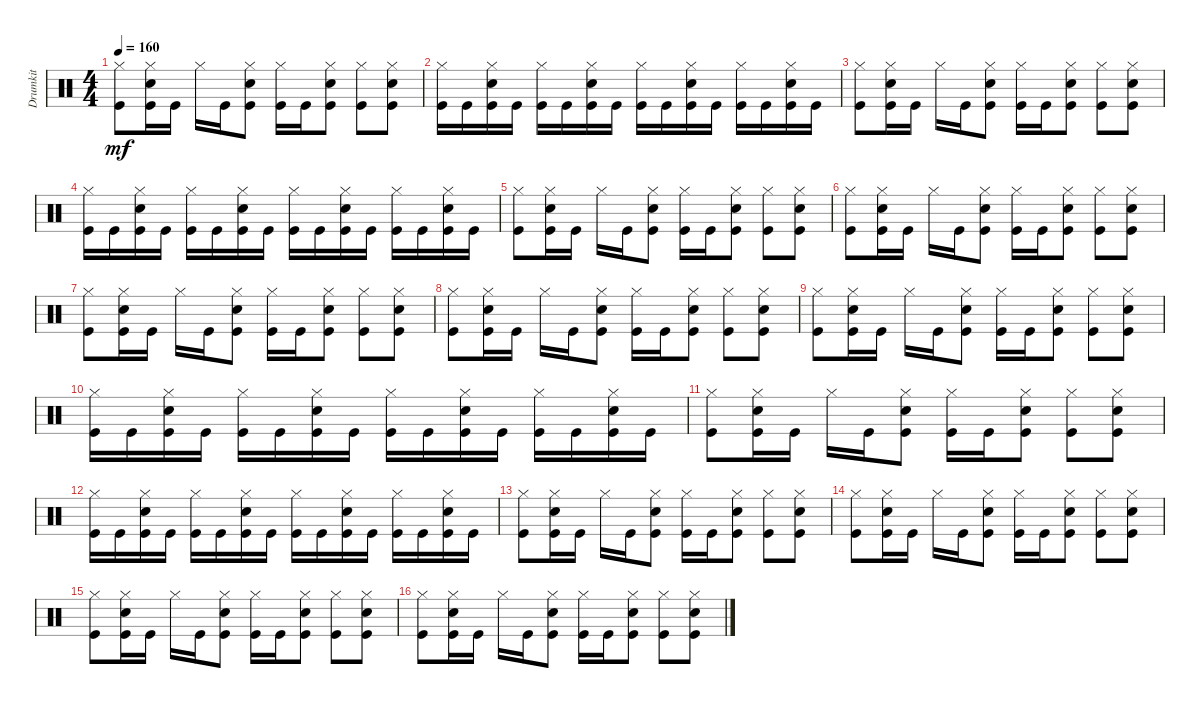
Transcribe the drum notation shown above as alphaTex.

\track ("Drumkit" "Drumkit") {instrument percussion}
\staff {score}
\articulation defaults
\ts (4 4)
\tempo 160
\clef neutral
\ks c
("Kick (hit)" "Hi-Hat (closed)").8{dy mf} ("Kick (hit)" "Snare (hit) 2" "Hi-Hat (closed)").16 "Kick (hit)".16 "Hi-Hat (closed)".16 "Kick (hit)".16 ("Kick (hit)" "Snare (hit) 2" "Hi-Hat (closed)").8 ("Kick (hit)" "Hi-Hat (closed)").16 "Kick (hit)".16 ("Kick (hit)" "Snare (hit) 2" "Hi-Hat (closed)").8 ("Kick (hit)" "Hi-Hat (closed)").8 ("Kick (hit)" "Snare (hit) 2" "Hi-Hat (closed)").8 |
("Kick (hit)" "Hi-Hat (closed)").16 "Kick (hit)".16 ("Kick (hit)" "Snare (hit) 2" "Hi-Hat (closed)").16 "Kick (hit)".16 ("Kick (hit)" "Hi-Hat (closed)").16 "Kick (hit)".16 ("Kick (hit)" "Snare (hit) 2" "Hi-Hat (closed)").16 "Kick (hit)".16 ("Kick (hit)" "Hi-Hat (closed)").16 "Kick (hit)".16 ("Kick (hit)" "Snare (hit) 2" "Hi-Hat (closed)").16 "Kick (hit)".16 ("Kick (hit)" "Hi-Hat (closed)").16 "Kick (hit)".16 ("Kick (hit)" "Snare (hit) 2" "Hi-Hat (closed)").16 "Kick (hit)".16 |
("Kick (hit)" "Hi-Hat (closed)").8 ("Kick (hit)" "Snare (hit) 2" "Hi-Hat (closed)").16 "Kick (hit)".16 "Hi-Hat (closed)".16 "Kick (hit)".16 ("Kick (hit)" "Snare (hit) 2" "Hi-Hat (closed)").8 ("Kick (hit)" "Hi-Hat (closed)").16 "Kick (hit)".16 ("Kick (hit)" "Snare (hit) 2" "Hi-Hat (closed)").8 ("Kick (hit)" "Hi-Hat (closed)").8 ("Kick (hit)" "Snare (hit) 2" "Hi-Hat (closed)").8 |
("Kick (hit)" "Hi-Hat (closed)").16 "Kick (hit)".16 ("Kick (hit)" "Snare (hit) 2" "Hi-Hat (closed)").16 "Kick (hit)".16 ("Kick (hit)" "Hi-Hat (closed)").16 "Kick (hit)".16 ("Kick (hit)" "Snare (hit) 2" "Hi-Hat (closed)").16 "Kick (hit)".16 ("Kick (hit)" "Hi-Hat (closed)").16 "Kick (hit)".16 ("Kick (hit)" "Snare (hit) 2" "Hi-Hat (closed)").16 "Kick (hit)".16 ("Kick (hit)" "Hi-Hat (closed)").16 "Kick (hit)".16 ("Kick (hit)" "Snare (hit) 2" "Hi-Hat (closed)").16 "Kick (hit)".16 |
("Kick (hit)" "Hi-Hat (closed)").8 ("Kick (hit)" "Snare (hit) 2" "Hi-Hat (closed)").16 "Kick (hit)".16 "Hi-Hat (closed)".16 "Kick (hit)".16 ("Kick (hit)" "Snare (hit) 2" "Hi-Hat (closed)").8 ("Kick (hit)" "Hi-Hat (closed)").16 "Kick (hit)".16 ("Kick (hit)" "Snare (hit) 2" "Hi-Hat (closed)").8 ("Kick (hit)" "Hi-Hat (closed)").8 ("Kick (hit)" "Snare (hit) 2" "Hi-Hat (closed)").8 |
("Kick (hit)" "Hi-Hat (closed)").8 ("Kick (hit)" "Snare (hit) 2" "Hi-Hat (closed)").16 "Kick (hit)".16 "Hi-Hat (closed)".16 "Kick (hit)".16 ("Kick (hit)" "Snare (hit) 2" "Hi-Hat (closed)").8 ("Kick (hit)" "Hi-Hat (closed)").16 "Kick (hit)".16 ("Kick (hit)" "Snare (hit) 2" "Hi-Hat (closed)").8 ("Kick (hit)" "Hi-Hat (closed)").8 ("Kick (hit)" "Snare (hit) 2" "Hi-Hat (closed)").8 |
("Kick (hit)" "Hi-Hat (closed)").8 ("Kick (hit)" "Snare (hit) 2" "Hi-Hat (closed)").16 "Kick (hit)".16 "Hi-Hat (closed)".16 "Kick (hit)".16 ("Kick (hit)" "Snare (hit) 2" "Hi-Hat (closed)").8 ("Kick (hit)" "Hi-Hat (closed)").16 "Kick (hit)".16 ("Kick (hit)" "Snare (hit) 2" "Hi-Hat (closed)").8 ("Kick (hit)" "Hi-Hat (closed)").8 ("Kick (hit)" "Snare (hit) 2" "Hi-Hat (closed)").8 |
("Kick (hit)" "Hi-Hat (closed)").8 ("Kick (hit)" "Snare (hit) 2" "Hi-Hat (closed)").16 "Kick (hit)".16 "Hi-Hat (closed)".16 "Kick (hit)".16 ("Kick (hit)" "Snare (hit) 2" "Hi-Hat (closed)").8 ("Kick (hit)" "Hi-Hat (closed)").16 "Kick (hit)".16 ("Kick (hit)" "Snare (hit) 2" "Hi-Hat (closed)").8 ("Kick (hit)" "Hi-Hat (closed)").8 ("Kick (hit)" "Snare (hit) 2" "Hi-Hat (closed)").8 |
("Kick (hit)" "Hi-Hat (closed)").8 ("Kick (hit)" "Snare (hit) 2" "Hi-Hat (closed)").16 "Kick (hit)".16 "Hi-Hat (closed)".16 "Kick (hit)".16 ("Kick (hit)" "Snare (hit) 2" "Hi-Hat (closed)").8 ("Kick (hit)" "Hi-Hat (closed)").16 "Kick (hit)".16 ("Kick (hit)" "Snare (hit) 2" "Hi-Hat (closed)").8 ("Kick (hit)" "Hi-Hat (closed)").8 ("Kick (hit)" "Snare (hit) 2" "Hi-Hat (closed)").8 |
("Kick (hit)" "Hi-Hat (closed)").16 "Kick (hit)".16 ("Kick (hit)" "Snare (hit) 2" "Hi-Hat (closed)").16 "Kick (hit)".16 ("Kick (hit)" "Hi-Hat (closed)").16 "Kick (hit)".16 ("Kick (hit)" "Snare (hit) 2" "Hi-Hat (closed)").16 "Kick (hit)".16 ("Kick (hit)" "Hi-Hat (closed)").16 "Kick (hit)".16 ("Kick (hit)" "Snare (hit) 2" "Hi-Hat (closed)").16 "Kick (hit)".16 ("Kick (hit)" "Hi-Hat (closed)").16 "Kick (hit)".16 ("Kick (hit)" "Snare (hit) 2" "Hi-Hat (closed)").16 "Kick (hit)".16 |
("Kick (hit)" "Hi-Hat (closed)").8 ("Kick (hit)" "Snare (hit) 2" "Hi-Hat (closed)").16 "Kick (hit)".16 "Hi-Hat (closed)".16 "Kick (hit)".16 ("Kick (hit)" "Snare (hit) 2" "Hi-Hat (closed)").8 ("Kick (hit)" "Hi-Hat (closed)").16 "Kick (hit)".16 ("Kick (hit)" "Snare (hit) 2" "Hi-Hat (closed)").8 ("Kick (hit)" "Hi-Hat (closed)").8 ("Kick (hit)" "Snare (hit) 2" "Hi-Hat (closed)").8 |
("Kick (hit)" "Hi-Hat (closed)").16 "Kick (hit)".16 ("Kick (hit)" "Snare (hit) 2" "Hi-Hat (closed)").16 "Kick (hit)".16 ("Kick (hit)" "Hi-Hat (closed)").16 "Kick (hit)".16 ("Kick (hit)" "Snare (hit) 2" "Hi-Hat (closed)").16 "Kick (hit)".16 ("Kick (hit)" "Hi-Hat (closed)").16 "Kick (hit)".16 ("Kick (hit)" "Snare (hit) 2" "Hi-Hat (closed)").16 "Kick (hit)".16 ("Kick (hit)" "Hi-Hat (closed)").16 "Kick (hit)".16 ("Kick (hit)" "Snare (hit) 2" "Hi-Hat (closed)").16 "Kick (hit)".16 |
("Kick (hit)" "Hi-Hat (closed)").8 ("Kick (hit)" "Snare (hit) 2" "Hi-Hat (closed)").16 "Kick (hit)".16 "Hi-Hat (closed)".16 "Kick (hit)".16 ("Kick (hit)" "Snare (hit) 2" "Hi-Hat (closed)").8 ("Kick (hit)" "Hi-Hat (closed)").16 "Kick (hit)".16 ("Kick (hit)" "Snare (hit) 2" "Hi-Hat (closed)").8 ("Kick (hit)" "Hi-Hat (closed)").8 ("Kick (hit)" "Snare (hit) 2" "Hi-Hat (closed)").8 |
("Kick (hit)" "Hi-Hat (closed)").8 ("Kick (hit)" "Snare (hit) 2" "Hi-Hat (closed)").16 "Kick (hit)".16 "Hi-Hat (closed)".16 "Kick (hit)".16 ("Kick (hit)" "Snare (hit) 2" "Hi-Hat (closed)").8 ("Kick (hit)" "Hi-Hat (closed)").16 "Kick (hit)".16 ("Kick (hit)" "Snare (hit) 2" "Hi-Hat (closed)").8 ("Kick (hit)" "Hi-Hat (closed)").8 ("Kick (hit)" "Snare (hit) 2" "Hi-Hat (closed)").8 |
("Kick (hit)" "Hi-Hat (closed)").8 ("Kick (hit)" "Snare (hit) 2" "Hi-Hat (closed)").16 "Kick (hit)".16 "Hi-Hat (closed)".16 "Kick (hit)".16 ("Kick (hit)" "Snare (hit) 2" "Hi-Hat (closed)").8 ("Kick (hit)" "Hi-Hat (closed)").16 "Kick (hit)".16 ("Kick (hit)" "Snare (hit) 2" "Hi-Hat (closed)").8 ("Kick (hit)" "Hi-Hat (closed)").8 ("Kick (hit)" "Snare (hit) 2" "Hi-Hat (closed)").8 |
("Kick (hit)" "Hi-Hat (closed)").8 ("Kick (hit)" "Snare (hit) 2" "Hi-Hat (closed)").16 "Kick (hit)".16 "Hi-Hat (closed)".16 "Kick (hit)".16 ("Kick (hit)" "Snare (hit) 2" "Hi-Hat (closed)").8 ("Kick (hit)" "Hi-Hat (closed)").16 "Kick (hit)".16 ("Kick (hit)" "Snare (hit) 2" "Hi-Hat (closed)").8 ("Kick (hit)" "Hi-Hat (closed)").8 ("Kick (hit)" "Snare (hit) 2" "Hi-Hat (closed)").8
